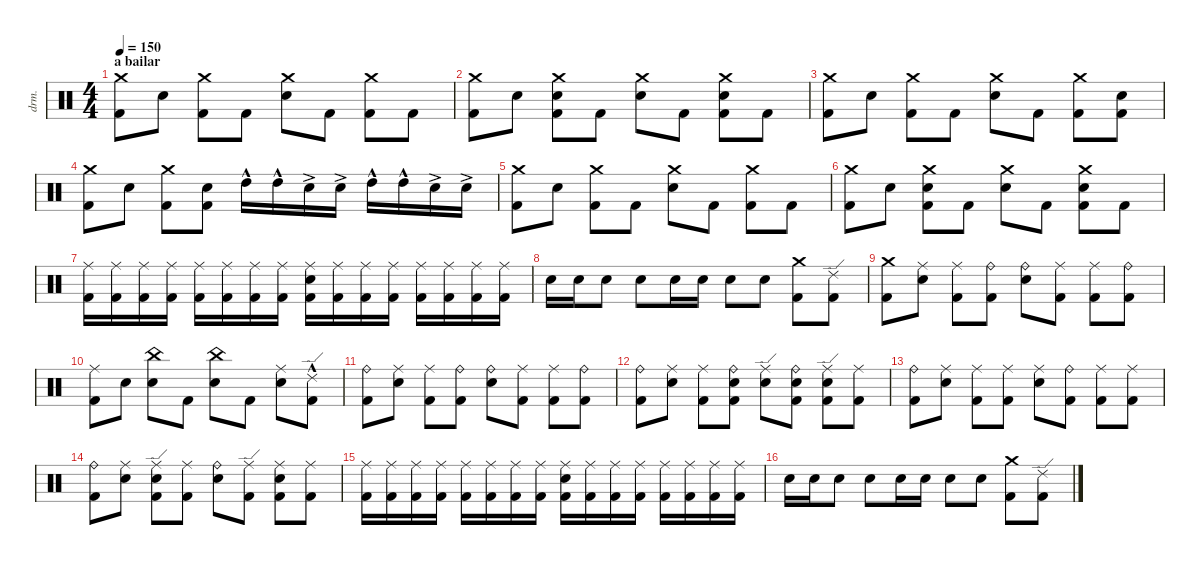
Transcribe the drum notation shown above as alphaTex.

\defaultSystemsLayout 4
\hideDynamics
\bracketExtendMode nobrackets
\otherSystemsTrackNameOrientation horizontal
\track ("Drumkit" "drm.") {instrument percussion}
\staff {score}
\articulation defaults
\ts (4 4)
\section ("" "a bailar")
\tempo 150
\clef neutral
\ks c
("Kick (hit) 2" "Crash medium (hit)").8{dy f beam Down} "Snare (hit) 2".8{beam Down} ("Kick (hit) 2" "Crash medium (hit)").8{beam Down} "Kick (hit) 2".8{beam Down} ("Snare (hit) 2" "Crash medium (hit)").8{beam Down} "Kick (hit) 2".8{beam Down} ("Kick (hit) 2" "Crash medium (hit)").8{beam Down} "Kick (hit) 2".8{beam Down} |
("Kick (hit) 2" "Crash medium (hit)").8{beam Down} "Snare (hit) 2".8{beam Down} ("Kick (hit) 2" "Crash medium (hit)" "Snare (hit) 2").8{beam Down} "Kick (hit) 2".8{beam Down} ("Snare (hit) 2" "Crash medium (hit)").8{beam Down} "Kick (hit) 2".8{beam Down} ("Kick (hit) 2" "Crash medium (hit)" "Snare (hit) 2").8{beam Down} "Kick (hit) 2".8{beam Down} |
("Kick (hit) 2" "Crash medium (hit)").8{beam Down} "Snare (hit) 2".8{beam Down} ("Kick (hit) 2" "Crash medium (hit)").8{beam Down} "Kick (hit) 2".8{beam Down} ("Snare (hit) 2" "Crash medium (hit)").8{beam Down} "Kick (hit) 2".8{beam Down} ("Kick (hit) 2" "Crash medium (hit)").8{beam Down} ("Kick (hit) 2" "Snare (hit) 2").8{beam Down} |
("Kick (hit) 2" "Crash medium (hit)").8{beam Down} "Snare (hit) 2".8{beam Down} ("Kick (hit) 2" "Crash medium (hit)").8{beam Down} ("Kick (hit) 2" "Snare (hit) 2").8{beam Down} "High Tom (hit)"{hac}.16{beam Down} "High Tom (hit)"{hac}.16{beam Down} "Snare (hit) 2"{ac}.16{beam Down} "Snare (hit) 2"{ac}.16{beam Down} "High Tom (hit)"{hac}.16{beam Down} "High Tom (hit)"{hac}.16{beam Down} "Snare (hit) 2"{ac}.16{beam Down} "Snare (hit) 2"{ac}.16{beam Down} |
("Kick (hit) 2" "Crash medium (hit)").8{beam Down} "Snare (hit) 2".8{beam Down} ("Kick (hit) 2" "Crash medium (hit)").8{beam Down} "Kick (hit) 2".8{beam Down} ("Snare (hit) 2" "Crash medium (hit)").8{beam Down} "Kick (hit) 2".8{beam Down} ("Kick (hit) 2" "Crash medium (hit)").8{beam Down} "Kick (hit) 2".8{beam Down} |
("Kick (hit) 2" "Crash medium (hit)").8{beam Down} "Snare (hit) 2".8{beam Down} ("Kick (hit) 2" "Crash medium (hit)" "Snare (hit) 2").8{beam Down} "Kick (hit) 2".8{beam Down} ("Snare (hit) 2" "Crash medium (hit)").8{beam Down} "Kick (hit) 2".8{beam Down} ("Kick (hit) 2" "Crash medium (hit)" "Snare (hit) 2").8{beam Down} "Kick (hit) 2".8{beam Down} |
("Ride (middle)" "Kick (hit) 2").16{beam Down} ("Ride (middle)" "Kick (hit) 2").16{beam Down} ("Ride (middle)" "Kick (hit) 2").16{beam Down} ("Ride (middle)" "Kick (hit) 2").16{beam Down} ("Ride (middle)" "Kick (hit) 2").16{beam Down} ("Ride (middle)" "Kick (hit) 2").16{beam Down} ("Ride (middle)" "Kick (hit) 2").16{beam Down} ("Ride (middle)" "Kick (hit) 2").16{beam Down} ("Ride (middle)" "Snare (hit) 2" "Kick (hit) 2").16{beam Down} ("Ride (middle)" "Kick (hit) 2").16{beam Down} ("Ride (middle)" "Kick (hit) 2").16{beam Down} ("Ride (middle)" "Kick (hit) 2").16{beam Down} ("Ride (middle)" "Kick (hit) 2").16{beam Down} ("Ride (middle)" "Kick (hit) 2").16{beam Down} ("Ride (middle)" "Kick (hit) 2").16{beam Down} ("Ride (middle)" "Kick (hit) 2").16{beam Down} |
"Snare (hit) 2".16{beam Down} "Snare (hit) 2".16{beam Down} "Snare (hit) 2".8{beam Down} "Snare (hit) 2".8{beam Down} "Snare (hit) 2".16{beam Down} "Snare (hit) 2".16{beam Down} "Snare (hit) 2".8{beam Down} "Snare (hit) 2".8{beam Down} ("Crash medium (hit)" "Kick (hit) 2").8{beam Down} ("Ride (edge) 2" "Kick (hit) 2").8{beam Down} |
("Kick (hit) 2" "Crash medium (hit)").8{beam Down} ("Snare (hit) 2" "Ride (middle)").8{beam Down} ("Kick (hit) 2" "Ride (middle)").8{beam Down} ("Kick (hit) 2" "Ride (bell)").8{beam Down} ("Snare (hit) 2" "Ride (bell)").8{beam Down} ("Kick (hit) 2" "Ride (middle)").8{beam Down} ("Kick (hit) 2" "Ride (middle)").8{beam Down} ("Kick (hit) 2" "Ride (bell)").8{beam Down} |
("Kick (hit) 2" "Ride (middle)").8{beam Down} "Snare (hit) 2".8{beam Down} ("Snare (hit) 2" "China (hit)").8{beam Down} "Kick (hit) 2".8{beam Down} ("Snare (hit) 2" "China (hit)").8{beam Down} "Kick (hit) 2".8{beam Down} ("Snare (hit) 2" "Ride (middle)").8{beam Down} ("Kick (hit) 2" "Ride (edge) 2"{hac}).8{beam Down} |
("Kick (hit) 2" "Ride (bell)").8{beam Down} ("Snare (hit) 2" "Ride (middle)").8{beam Down} ("Kick (hit) 2" "Ride (middle)").8{beam Down} ("Kick (hit) 2" "Ride (bell)").8{beam Down} ("Snare (hit) 2" "Ride (bell)").8{beam Down} ("Kick (hit) 2" "Ride (middle)").8{beam Down} ("Kick (hit) 2" "Ride (middle)").8{beam Down} ("Kick (hit) 2" "Ride (bell)").8{beam Down} |
("Kick (hit) 2" "Ride (bell)").8{beam Down} ("Snare (hit) 2" "Ride (middle)").8{beam Down} ("Kick (hit) 2" "Ride (middle)").8{beam Down} ("Kick (hit) 2" "Snare (hit) 2" "Ride (bell)").8{beam Down} ("Snare (hit) 2" "Ride (edge)").8{beam Down} ("Kick (hit) 2" "Snare (hit) 2" "Ride (bell)").8{beam Down} ("Kick (hit) 2" "Snare (hit) 2" "Ride (edge)").8{beam Down} ("Kick (hit) 2" "Ride (middle)").8{beam Down} |
("Kick (hit) 2" "Ride (bell)").8{beam Down} ("Snare (hit) 2" "Ride (middle)").8{beam Down} ("Kick (hit) 2" "Ride (middle)").8{beam Down} ("Kick (hit) 2" "Ride (middle)").8{beam Down} ("Snare (hit) 2" "Ride (middle)").8{beam Down} ("Kick (hit) 2" "Ride (bell)").8{beam Down} ("Kick (hit) 2" "Ride (middle)").8{beam Down} ("Kick (hit) 2" "Ride (middle)").8{beam Down} |
("Kick (hit) 2" "Ride (bell)").8{beam Down} ("Snare (hit) 2" "Ride (middle)").8{beam Down} ("Kick (hit) 2" "Snare (hit) 2" "Ride (edge)").8{beam Down} ("Kick (hit) 2" "Ride (middle)").8{beam Down} ("Snare (hit) 2" "Ride (bell)").8{beam Down} ("Kick (hit) 2" "Ride (edge)").8{beam Down} ("Kick (hit) 2" "Snare (hit) 2" "Ride (middle)").8{beam Down} ("Kick (hit) 2" "Ride (middle)").8{beam Down} |
("Ride (middle)" "Kick (hit) 2").16{beam Down} ("Ride (middle)" "Kick (hit) 2").16{beam Down} ("Ride (middle)" "Kick (hit) 2").16{beam Down} ("Ride (middle)" "Kick (hit) 2").16{beam Down} ("Ride (middle)" "Kick (hit) 2").16{beam Down} ("Ride (middle)" "Kick (hit) 2").16{beam Down} ("Ride (middle)" "Kick (hit) 2").16{beam Down} ("Ride (middle)" "Kick (hit) 2").16{beam Down} ("Ride (middle)" "Snare (hit) 2" "Kick (hit) 2").16{beam Down} ("Ride (middle)" "Kick (hit) 2").16{beam Down} ("Ride (middle)" "Kick (hit) 2").16{beam Down} ("Ride (middle)" "Kick (hit) 2").16{beam Down} ("Ride (middle)" "Kick (hit) 2").16{beam Down} ("Ride (middle)" "Kick (hit) 2").16{beam Down} ("Ride (middle)" "Kick (hit) 2").16{beam Down} ("Ride (middle)" "Kick (hit) 2").16{beam Down} |
"Snare (hit) 2".16{beam Down} "Snare (hit) 2".16{beam Down} "Snare (hit) 2".8{beam Down} "Snare (hit) 2".8{beam Down} "Snare (hit) 2".16{beam Down} "Snare (hit) 2".16{beam Down} "Snare (hit) 2".8{beam Down} "Snare (hit) 2".8{beam Down} ("Crash medium (hit)" "Kick (hit) 2").8{beam Down} ("Ride (edge) 2" "Kick (hit) 2").8{beam Down}
